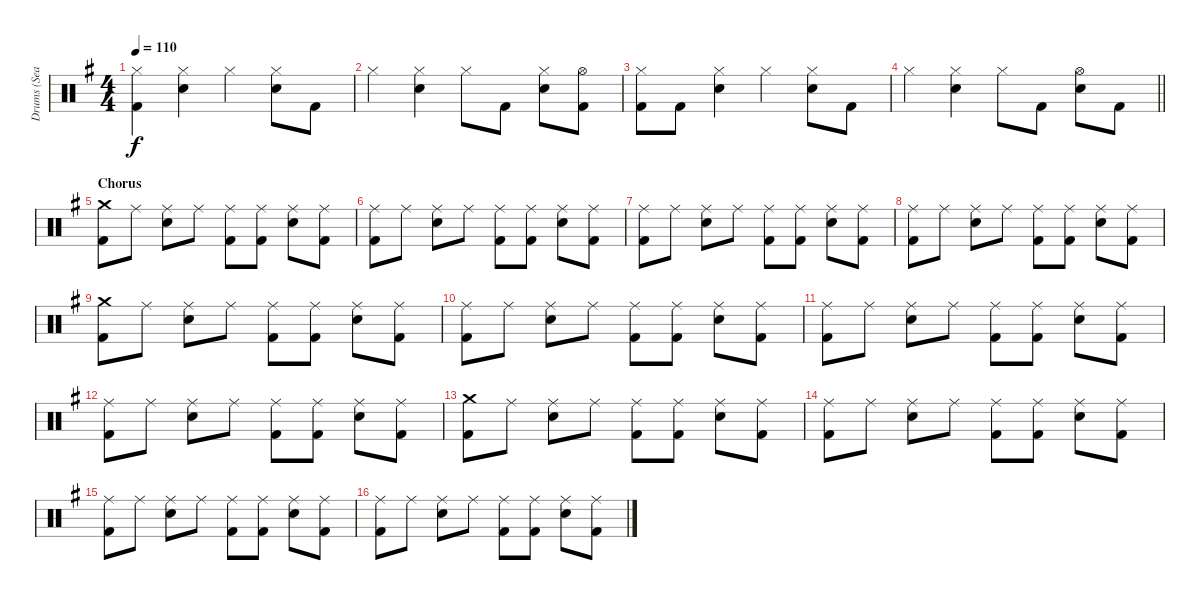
\track ("Drums (Sean)" "Drums (Sea") {instrument percussion}
\staff {score}
\articulation defaults
\ts (4 4)
\tempo 110
\clef neutral
\ks g
("Hi-Hat (closed)" "Kick (hit) 2").4{dy f} ("Hi-Hat (closed)" "Snare (hit) 2").4 "Hi-Hat (closed)".4 ("Hi-Hat (closed)" "Snare (hit) 2").8 "Kick (hit) 2".8 |
"Hi-Hat (closed)".4 ("Hi-Hat (closed)" "Snare (hit) 2").4 "Hi-Hat (closed)".8 "Kick (hit) 2".8 ("Hi-Hat (closed)" "Snare (hit) 2").8 ("Hi-Hat (open)" "Kick (hit) 2").8 |
("Hi-Hat (closed)" "Kick (hit) 2").8 "Kick (hit) 2".8 ("Hi-Hat (closed)" "Snare (hit) 2").4 "Hi-Hat (closed)".4 ("Hi-Hat (closed)" "Snare (hit) 2").8 "Kick (hit) 2".8 |
\barLineRight lightlight "Hi-Hat (closed)".4
("Hi-Hat (closed)" "Snare (hit) 2").4 "Hi-Hat (closed)".8 "Kick (hit) 2".8 ("Hi-Hat (open)" "Snare (hit) 2").8 "Kick (hit) 2".8 |
\section ("" "Chorus")
("Crash medium (hit)" "Kick (hit) 2").8 "Ride (middle)".8 ("Ride (middle)" "Snare (hit) 2").8 "Ride (middle)".8 ("Ride (middle)" "Kick (hit) 2").8 ("Ride (middle)" "Kick (hit) 2").8 ("Ride (middle)" "Snare (hit) 2").8 ("Ride (middle)" "Kick (hit) 2").8 |
("Ride (middle)" "Kick (hit) 2").8 "Ride (middle)".8 ("Ride (middle)" "Snare (hit) 2").8 "Ride (middle)".8 ("Ride (middle)" "Kick (hit) 2").8 ("Ride (middle)" "Kick (hit) 2").8 ("Ride (middle)" "Snare (hit) 2").8 ("Ride (middle)" "Kick (hit) 2").8 |
("Ride (middle)" "Kick (hit) 2").8 "Ride (middle)".8 ("Ride (middle)" "Snare (hit) 2").8 "Ride (middle)".8 ("Ride (middle)" "Kick (hit) 2").8 ("Ride (middle)" "Kick (hit) 2").8 ("Ride (middle)" "Snare (hit) 2").8 ("Ride (middle)" "Kick (hit) 2").8 |
("Ride (middle)" "Kick (hit) 2").8 "Ride (middle)".8 ("Ride (middle)" "Snare (hit) 2").8 "Ride (middle)".8 ("Ride (middle)" "Kick (hit) 2").8 ("Ride (middle)" "Kick (hit) 2").8 ("Ride (middle)" "Snare (hit) 2").8 ("Ride (middle)" "Kick (hit) 2").8 |
("Crash medium (hit)" "Kick (hit) 2").8 "Ride (middle)".8 ("Ride (middle)" "Snare (hit) 2").8 "Ride (middle)".8 ("Ride (middle)" "Kick (hit) 2").8 ("Ride (middle)" "Kick (hit) 2").8 ("Ride (middle)" "Snare (hit) 2").8 ("Ride (middle)" "Kick (hit) 2").8 |
("Ride (middle)" "Kick (hit) 2").8 "Ride (middle)".8 ("Ride (middle)" "Snare (hit) 2").8 "Ride (middle)".8 ("Ride (middle)" "Kick (hit) 2").8 ("Ride (middle)" "Kick (hit) 2").8 ("Ride (middle)" "Snare (hit) 2").8 ("Ride (middle)" "Kick (hit) 2").8 |
("Ride (middle)" "Kick (hit) 2").8 "Ride (middle)".8 ("Ride (middle)" "Snare (hit) 2").8 "Ride (middle)".8 ("Ride (middle)" "Kick (hit) 2").8 ("Ride (middle)" "Kick (hit) 2").8 ("Ride (middle)" "Snare (hit) 2").8 ("Ride (middle)" "Kick (hit) 2").8 |
("Ride (middle)" "Kick (hit) 2").8 "Ride (middle)".8 ("Ride (middle)" "Snare (hit) 2").8 "Ride (middle)".8 ("Ride (middle)" "Kick (hit) 2").8 ("Ride (middle)" "Kick (hit) 2").8 ("Ride (middle)" "Snare (hit) 2").8 ("Ride (middle)" "Kick (hit) 2").8 |
("Crash medium (hit)" "Kick (hit) 2").8 "Ride (middle)".8 ("Ride (middle)" "Snare (hit) 2").8 "Ride (middle)".8 ("Ride (middle)" "Kick (hit) 2").8 ("Ride (middle)" "Kick (hit) 2").8 ("Ride (middle)" "Snare (hit) 2").8 ("Ride (middle)" "Kick (hit) 2").8 |
("Ride (middle)" "Kick (hit) 2").8 "Ride (middle)".8 ("Ride (middle)" "Snare (hit) 2").8 "Ride (middle)".8 ("Ride (middle)" "Kick (hit) 2").8 ("Ride (middle)" "Kick (hit) 2").8 ("Ride (middle)" "Snare (hit) 2").8 ("Ride (middle)" "Kick (hit) 2").8 |
("Ride (middle)" "Kick (hit) 2").8 "Ride (middle)".8 ("Ride (middle)" "Snare (hit) 2").8 "Ride (middle)".8 ("Ride (middle)" "Kick (hit) 2").8 ("Ride (middle)" "Kick (hit) 2").8 ("Ride (middle)" "Snare (hit) 2").8 ("Ride (middle)" "Kick (hit) 2").8 |
("Ride (middle)" "Kick (hit) 2").8 "Ride (middle)".8 ("Ride (middle)" "Snare (hit) 2").8 "Ride (middle)".8 ("Ride (middle)" "Kick (hit) 2").8 ("Ride (middle)" "Kick (hit) 2").8 ("Ride (middle)" "Snare (hit) 2").8 ("Ride (middle)" "Kick (hit) 2").8
